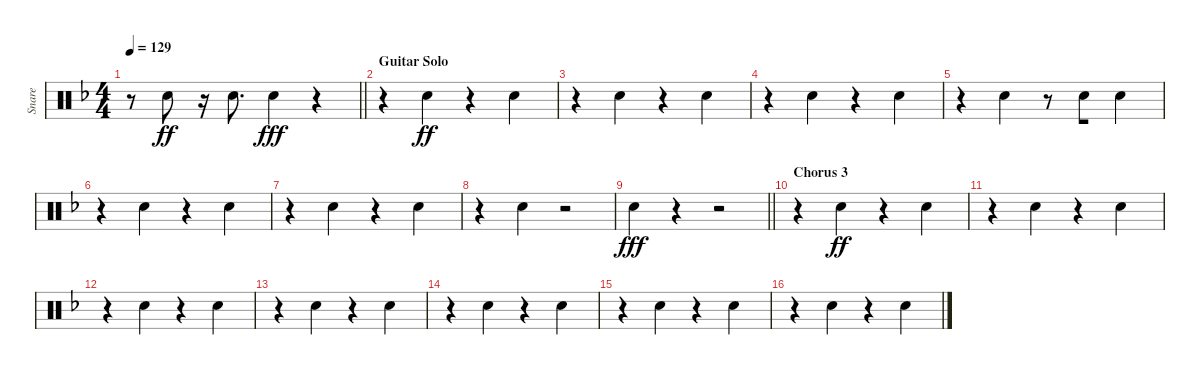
\track ("Snare" "Snare") {instrument percussion}
\staff {score}
\articulation defaults
\ts (4 4)
\tempo 129
\clef neutral
\barLineRight lightlight
\ks dminor
r.8{dy ff} "Electric Snare (hit)".8 r.16 "Electric Snare (hit)".8{d} "Electric Snare (hit)".4{dy fff} r.4 |
\section ("" "Guitar Solo")
r.4 "Electric Snare (hit)".4{dy ff} r.4 "Electric Snare (hit)".4 |
r.4 "Electric Snare (hit)".4 r.4 "Electric Snare (hit)".4 |
r.4 "Electric Snare (hit)".4 r.4 "Electric Snare (hit)".4 |
r.4 "Electric Snare (hit)".4 r.8 "Electric Snare (hit)".8{beam merge} "Electric Snare (hit)".4 |
r.4 "Electric Snare (hit)".4 r.4 "Electric Snare (hit)".4 |
r.4 "Electric Snare (hit)".4 r.4 "Electric Snare (hit)".4 |
r.4 "Electric Snare (hit)".4 r.2 |
\barLineRight lightlight "Electric Snare (hit)".4{dy fff}
r.4 r.2 |
\section ("" "Chorus 3")
r.4 "Electric Snare (hit)".4{dy ff} r.4 "Electric Snare (hit)".4 |
r.4 "Electric Snare (hit)".4 r.4 "Electric Snare (hit)".4 |
r.4 "Electric Snare (hit)".4 r.4 "Electric Snare (hit)".4 |
r.4 "Electric Snare (hit)".4 r.4 "Electric Snare (hit)".4 |
r.4 "Electric Snare (hit)".4 r.4 "Electric Snare (hit)".4 |
r.4 "Electric Snare (hit)".4 r.4 "Electric Snare (hit)".4 |
r.4 "Electric Snare (hit)".4 r.4 "Electric Snare (hit)".4
